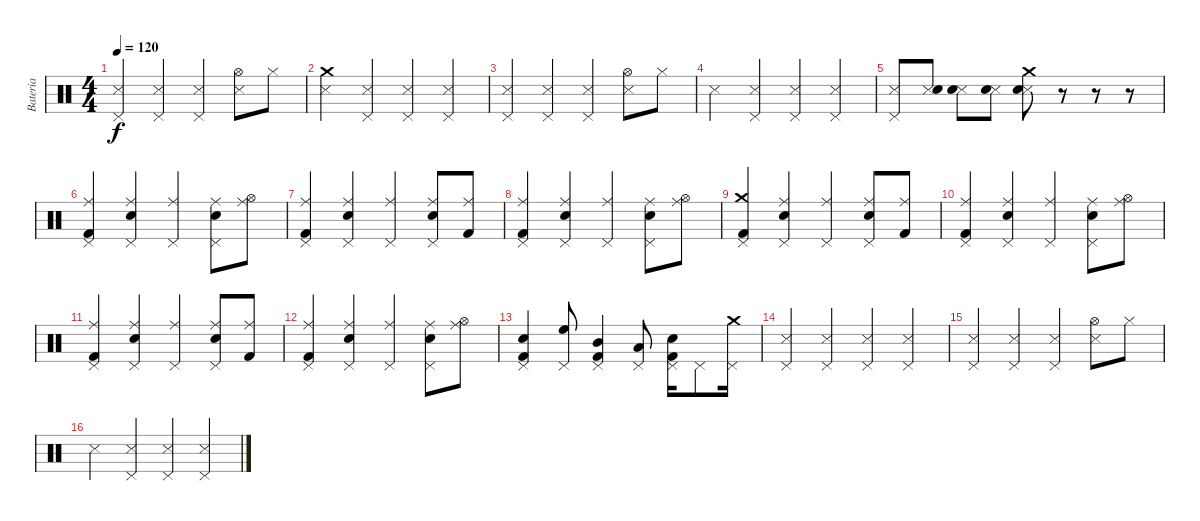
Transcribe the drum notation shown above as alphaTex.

\track ("Bateria" "Bateria") {instrument percussion}
\staff {score}
\articulation defaults
\ts (4 4)
\tempo 120
\clef neutral
\ks c
("Snare (side stick) 3" "Pedal Hi-Hat (hit)").4{dy f} ("Snare (side stick) 3" "Pedal Hi-Hat (hit)").4 ("Snare (side stick) 3" "Pedal Hi-Hat (hit)").4 ("Snare (side stick) 3" "Hi-Hat (open)").8 "Hi-Hat (closed)".8 |
("Snare (side stick) 3" "Crash medium (hit)").4 ("Snare (side stick) 3" "Pedal Hi-Hat (hit)").4 ("Snare (side stick) 3" "Pedal Hi-Hat (hit)").4 ("Snare (side stick) 3" "Pedal Hi-Hat (hit)").4 |
("Snare (side stick) 3" "Pedal Hi-Hat (hit)").4 ("Snare (side stick) 3" "Pedal Hi-Hat (hit)").4 ("Snare (side stick) 3" "Pedal Hi-Hat (hit)").4 ("Snare (side stick) 3" "Hi-Hat (open)").8 "Hi-Hat (closed)".8 |
"Snare (side stick) 3".4 ("Snare (side stick) 3" "Pedal Hi-Hat (hit)").4 ("Snare (side stick) 3" "Pedal Hi-Hat (hit)").4 ("Snare (side stick) 3" "Pedal Hi-Hat (hit)").4 |
("Snare (side stick) 3" "Pedal Hi-Hat (hit)").8{volume 6} ("Snare (side stick) 3" "Snare (hit) 2").8{volume 7} ("Snare (side stick) 3" "Snare (hit) 2").8{volume 9} ("Snare (side stick) 3" "Snare (hit) 2").8{volume 11} ("Snare (side stick) 3" "Snare (hit) 2" "Crash medium (hit)").8{volume 16} r.8 r.8 r.8 |
("Pedal Hi-Hat (hit)" "Kick (hit) 2" "Ride (middle)").4 ("Pedal Hi-Hat (hit)" "Electric Snare (hit)" "Ride (middle)").4 ("Pedal Hi-Hat (hit)" "Ride (middle)").4 ("Pedal Hi-Hat (hit)" "Electric Snare (hit)" "Ride (middle)").8 ("Hi-Hat (open)" "Ride (middle)").8 |
("Pedal Hi-Hat (hit)" "Kick (hit) 2" "Ride (middle)").4 ("Pedal Hi-Hat (hit)" "Electric Snare (hit)" "Ride (middle)").4 ("Pedal Hi-Hat (hit)" "Ride (middle)").4 ("Pedal Hi-Hat (hit)" "Electric Snare (hit)" "Ride (middle)").8 ("Kick (hit) 2" "Ride (middle)").8 |
("Pedal Hi-Hat (hit)" "Kick (hit) 2" "Ride (middle)").4 ("Pedal Hi-Hat (hit)" "Electric Snare (hit)" "Ride (middle)").4 ("Pedal Hi-Hat (hit)" "Ride (middle)").4 ("Pedal Hi-Hat (hit)" "Electric Snare (hit)" "Ride (middle)").8 ("Hi-Hat (open)" "Ride (middle)").8 |
("Pedal Hi-Hat (hit)" "Kick (hit) 2" "Crash medium (hit)").4 ("Pedal Hi-Hat (hit)" "Electric Snare (hit)" "Ride (middle)").4 ("Pedal Hi-Hat (hit)" "Ride (middle)").4 ("Pedal Hi-Hat (hit)" "Electric Snare (hit)" "Ride (middle)").8 ("Kick (hit) 2" "Ride (middle)").8 |
("Pedal Hi-Hat (hit)" "Kick (hit) 2" "Ride (middle)").4 ("Pedal Hi-Hat (hit)" "Electric Snare (hit)" "Ride (middle)").4 ("Pedal Hi-Hat (hit)" "Ride (middle)").4 ("Pedal Hi-Hat (hit)" "Electric Snare (hit)" "Ride (middle)").8 ("Hi-Hat (open)" "Ride (middle)").8 |
("Pedal Hi-Hat (hit)" "Kick (hit) 2" "Ride (middle)").4 ("Pedal Hi-Hat (hit)" "Electric Snare (hit)" "Ride (middle)").4 ("Pedal Hi-Hat (hit)" "Ride (middle)").4 ("Pedal Hi-Hat (hit)" "Electric Snare (hit)" "Ride (middle)").8 ("Kick (hit) 2" "Ride (middle)").8 |
("Pedal Hi-Hat (hit)" "Kick (hit) 2" "Ride (middle)").4 ("Pedal Hi-Hat (hit)" "Electric Snare (hit)" "Ride (middle)").4 ("Pedal Hi-Hat (hit)" "Ride (middle)").4 ("Pedal Hi-Hat (hit)" "Electric Snare (hit)" "Ride (middle)").8 ("Hi-Hat (open)" "Ride (middle)").8 |
("Pedal Hi-Hat (hit)" "Kick (hit) 2" "Snare (hit) 2").4 ("Pedal Hi-Hat (hit)" "High Floor Tom (hit)").8 ("Pedal Hi-Hat (hit)" "Kick (hit) 2" "Mid Tom (hit)").4 ("Pedal Hi-Hat (hit)" "Low Floor Tom (hit)").8 ("Pedal Hi-Hat (hit)" "Kick (hit) 2" "Snare (hit) 2").16 "Pedal Hi-Hat (hit)".8 ("Pedal Hi-Hat (hit)" "Crash medium (hit)").16 |
("Snare (side stick) 3" "Pedal Hi-Hat (hit)").4 ("Snare (side stick) 3" "Pedal Hi-Hat (hit)").4 ("Snare (side stick) 3" "Pedal Hi-Hat (hit)").4 ("Snare (side stick) 3" "Pedal Hi-Hat (hit)").4 |
("Snare (side stick) 3" "Pedal Hi-Hat (hit)").4 ("Snare (side stick) 3" "Pedal Hi-Hat (hit)").4 ("Snare (side stick) 3" "Pedal Hi-Hat (hit)").4 ("Snare (side stick) 3" "Hi-Hat (open)").8 "Hi-Hat (closed)".8 |
"Snare (side stick) 3".4 ("Snare (side stick) 3" "Pedal Hi-Hat (hit)").4 ("Snare (side stick) 3" "Pedal Hi-Hat (hit)").4 ("Snare (side stick) 3" "Pedal Hi-Hat (hit)").4
